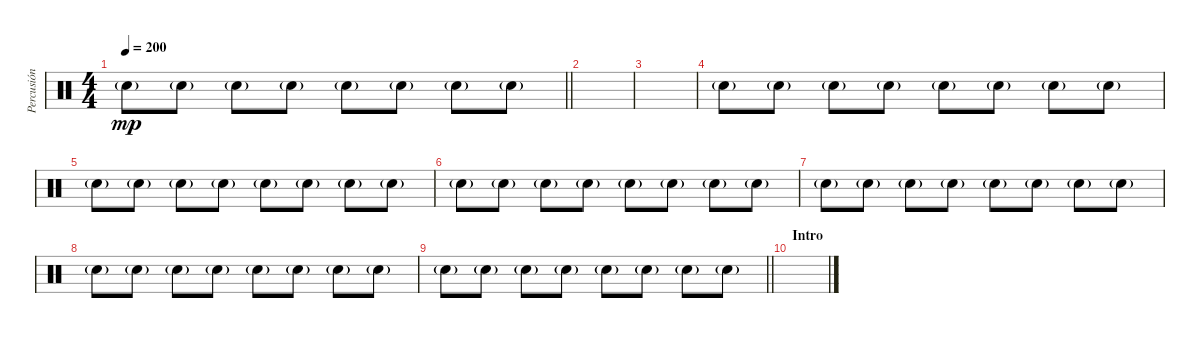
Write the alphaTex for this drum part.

\track ("Percusión" "Percusión") {instrument percussion}
\staff {score}
\articulation defaults
\ts (4 4)
\tempo 200
\clef neutral
\barLineRight lightlight
\ks c "Hand Clap (hit)"{g}.8{dy mp} "Hand Clap (hit)"{g}.8 "Hand Clap (hit)"{g}.8 "Hand Clap (hit)"{g}.8 "Hand Clap (hit)"{g}.8 "Hand Clap (hit)"{g}.8 "Hand Clap (hit)"{g}.8 "Hand Clap (hit)"{g}.8
|
\section ("" "")
|
|
"Hand Clap (hit)"{g}.8 "Hand Clap (hit)"{g}.8 "Hand Clap (hit)"{g}.8 "Hand Clap (hit)"{g}.8 "Hand Clap (hit)"{g}.8 "Hand Clap (hit)"{g}.8 "Hand Clap (hit)"{g}.8 "Hand Clap (hit)"{g}.8 |
"Hand Clap (hit)"{g}.8 "Hand Clap (hit)"{g}.8 "Hand Clap (hit)"{g}.8 "Hand Clap (hit)"{g}.8 "Hand Clap (hit)"{g}.8 "Hand Clap (hit)"{g}.8 "Hand Clap (hit)"{g}.8 "Hand Clap (hit)"{g}.8 |
"Hand Clap (hit)"{g}.8 "Hand Clap (hit)"{g}.8 "Hand Clap (hit)"{g}.8 "Hand Clap (hit)"{g}.8 "Hand Clap (hit)"{g}.8 "Hand Clap (hit)"{g}.8 "Hand Clap (hit)"{g}.8 "Hand Clap (hit)"{g}.8 |
"Hand Clap (hit)"{g}.8 "Hand Clap (hit)"{g}.8 "Hand Clap (hit)"{g}.8 "Hand Clap (hit)"{g}.8 "Hand Clap (hit)"{g}.8 "Hand Clap (hit)"{g}.8 "Hand Clap (hit)"{g}.8 "Hand Clap (hit)"{g}.8 |
"Hand Clap (hit)"{g}.8 "Hand Clap (hit)"{g}.8 "Hand Clap (hit)"{g}.8 "Hand Clap (hit)"{g}.8 "Hand Clap (hit)"{g}.8 "Hand Clap (hit)"{g}.8 "Hand Clap (hit)"{g}.8 "Hand Clap (hit)"{g}.8 |
\barLineRight lightlight "Hand Clap (hit)"{g}.8 "Hand Clap (hit)"{g}.8 "Hand Clap (hit)"{g}.8 "Hand Clap (hit)"{g}.8 "Hand Clap (hit)"{g}.8 "Hand Clap (hit)"{g}.8 "Hand Clap (hit)"{g}.8 "Hand Clap (hit)"{g}.8
|
\section ("" "Intro")
